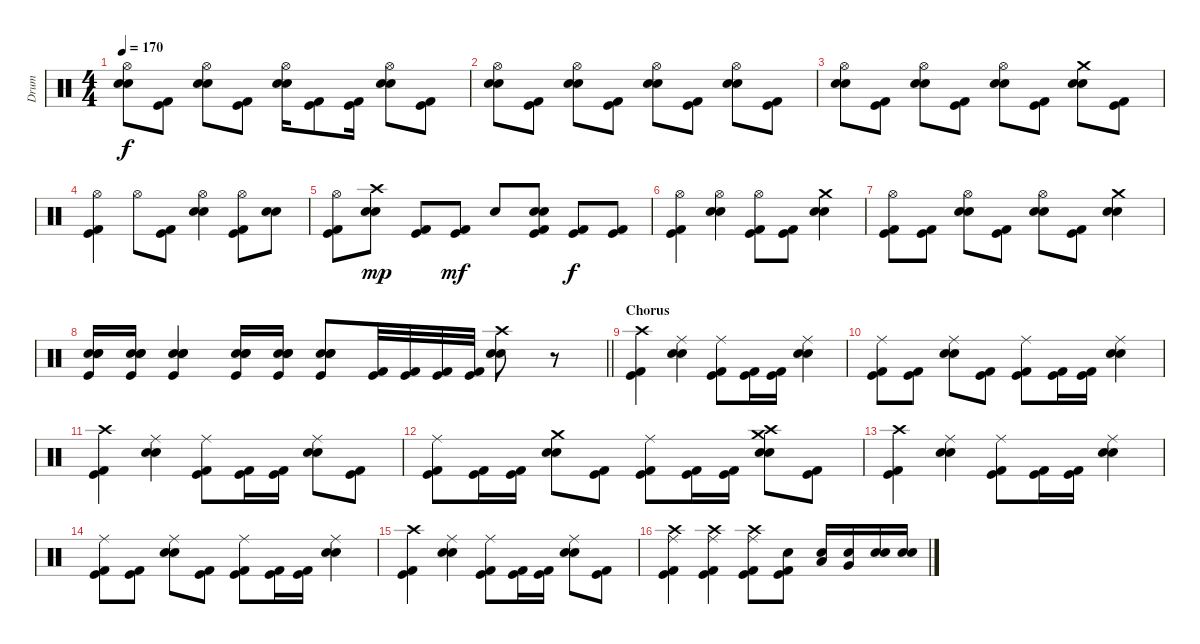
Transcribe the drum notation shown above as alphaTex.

\track ("Drum" "Drum") {instrument percussion}
\staff
\articulation defaults
\ts (4 4)
\tempo 170
\clef neutral
\ks c
("Hi-Hat (open)" "Electric Snare (hit)" "Snare (hit) 2").8{dy f} ("Kick (hit) 2" "Kick (hit)").8 ("Hi-Hat (open)" "Electric Snare (hit)" "Snare (hit) 2").8 ("Kick (hit) 2" "Kick (hit)").8 ("Hi-Hat (open)" "Electric Snare (hit)" "Snare (hit) 2").16 ("Kick (hit) 2" "Kick (hit)").8 ("Kick (hit) 2" "Kick (hit)").16 ("Hi-Hat (open)" "Electric Snare (hit)" "Snare (hit) 2").8 ("Kick (hit) 2" "Kick (hit)").8 |
("Hi-Hat (open)" "Electric Snare (hit)" "Snare (hit) 2").8 ("Kick (hit) 2" "Kick (hit)").8 ("Hi-Hat (open)" "Electric Snare (hit)" "Snare (hit) 2").8 ("Kick (hit) 2" "Kick (hit)").8 ("Hi-Hat (open)" "Electric Snare (hit)" "Snare (hit) 2").8 ("Kick (hit) 2" "Kick (hit)").8 ("Hi-Hat (open)" "Electric Snare (hit)" "Snare (hit) 2").8 ("Kick (hit) 2" "Kick (hit)").8 |
("Hi-Hat (open)" "Electric Snare (hit)" "Snare (hit) 2").8 ("Kick (hit) 2" "Kick (hit)").8 ("Hi-Hat (open)" "Electric Snare (hit)" "Snare (hit) 2").8 ("Kick (hit) 2" "Kick (hit)").8 ("Hi-Hat (open)" "Electric Snare (hit)" "Snare (hit) 2").8 ("Kick (hit) 2" "Kick (hit)").8 ("Crash medium (hit)" "Electric Snare (hit)" "Snare (hit) 2").8 ("Kick (hit) 2" "Kick (hit)").8 |
("Hi-Hat (open)" "Kick (hit) 2" "Kick (hit)").4 "Hi-Hat (open)".8 ("Kick (hit) 2" "Kick (hit)").8 ("Hi-Hat (open)" "Electric Snare (hit)" "Snare (hit) 2").4 ("Hi-Hat (open)" "Kick (hit) 2" "Kick (hit)").8 ("Electric Snare (hit)" "Snare (hit) 2").8 |
("Hi-Hat (open)" "Kick (hit) 2" "Kick (hit)").8 ("Crash high (hit)" "Electric Snare (hit)" "Snare (hit) 2").8{dy mp} ("Kick (hit) 2" "Kick (hit)").8 ("Kick (hit) 2" "Kick (hit)").8{dy mf} "Electric Snare (hit)".8 ("Electric Snare (hit)" "Snare (hit) 2" "Kick (hit) 2" "Kick (hit)").8 ("Kick (hit) 2" "Kick (hit)").8{dy f} ("Kick (hit) 2" "Kick (hit)").8 |
("Hi-Hat (open)" "Kick (hit) 2" "Kick (hit)").4 ("Hi-Hat (open)" "Electric Snare (hit)" "Snare (hit) 2").4 ("Hi-Hat (open)" "Kick (hit) 2" "Kick (hit)").8 ("Kick (hit) 2" "Kick (hit)").8 ("Crash medium (hit)" "Electric Snare (hit)" "Snare (hit) 2").4 |
("Hi-Hat (open)" "Kick (hit) 2" "Kick (hit)").8 ("Kick (hit) 2" "Kick (hit)").8 ("Hi-Hat (open)" "Electric Snare (hit)" "Snare (hit) 2").8 ("Kick (hit) 2" "Kick (hit)").8 ("Hi-Hat (open)" "Electric Snare (hit)" "Snare (hit) 2").8 ("Kick (hit) 2" "Kick (hit)").8 ("Crash medium (hit)" "Electric Snare (hit)" "Snare (hit) 2").4 |
\barLineRight lightlight
("Snare (hit) 2" "Electric Snare (hit)" "Snare (hit) 2" "Kick (hit)").16 ("Snare (hit) 2" "Electric Snare (hit)" "Snare (hit) 2" "Kick (hit)").16 ("Snare (hit) 2" "Electric Snare (hit)" "Snare (hit) 2" "Kick (hit)").4 ("Snare (hit) 2" "Electric Snare (hit)" "Snare (hit) 2" "Kick (hit)").16 ("Snare (hit) 2" "Electric Snare (hit)" "Snare (hit) 2" "Kick (hit)").16 ("Snare (hit) 2" "Electric Snare (hit)" "Snare (hit) 2" "Kick (hit)").8 ("Kick (hit) 2" "Kick (hit)").32 ("Kick (hit) 2" "Kick (hit)").32 ("Kick (hit) 2" "Kick (hit)").32 ("Kick (hit) 2" "Kick (hit)").32 ("Crash high (hit)" "Electric Snare (hit)" "Snare (hit) 2").8 r.8 |
\section ("" "Chorus")
("Crash high (hit)" "Kick (hit) 2" "Kick (hit)").4 ("Ride (middle)" "Electric Snare (hit)" "Snare (hit) 2").4 ("Ride (middle)" "Kick (hit) 2" "Kick (hit)").8 ("Kick (hit) 2" "Kick (hit)").16 ("Kick (hit) 2" "Kick (hit)").16 ("Ride (middle)" "Electric Snare (hit)" "Snare (hit) 2").4 |
("Ride (middle)" "Kick (hit) 2" "Kick (hit)").8 ("Kick (hit) 2" "Kick (hit)").8 ("Ride (middle)" "Electric Snare (hit)" "Snare (hit) 2").8 ("Kick (hit) 2" "Kick (hit)").8 ("Ride (middle)" "Kick (hit) 2" "Kick (hit)").8 ("Kick (hit) 2" "Kick (hit)").16 ("Kick (hit) 2" "Kick (hit)").16 ("Ride (middle)" "Electric Snare (hit)" "Snare (hit) 2").4 |
("Crash high (hit)" "Kick (hit) 2" "Kick (hit)").4 ("Ride (middle)" "Electric Snare (hit)" "Snare (hit) 2").4 ("Ride (middle)" "Kick (hit) 2" "Kick (hit)").8 ("Kick (hit) 2" "Kick (hit)").16 ("Kick (hit) 2" "Kick (hit)").16 ("Ride (middle)" "Electric Snare (hit)" "Snare (hit) 2").8 ("Kick (hit) 2" "Kick (hit)").8 |
("Ride (middle)" "Kick (hit) 2" "Kick (hit)").8 ("Kick (hit) 2" "Kick (hit)").16 ("Kick (hit) 2" "Kick (hit)").16 ("Crash medium (hit)" "Electric Snare (hit)" "Snare (hit) 2").8 ("Kick (hit) 2" "Kick (hit)").8 ("Ride (middle)" "Kick (hit) 2" "Kick (hit)").8 ("Kick (hit) 2" "Kick (hit)").16 ("Kick (hit) 2" "Kick (hit)").16 ("Crash high (hit)" "Crash medium (hit)" "Electric Snare (hit)" "Snare (hit) 2").8 ("Kick (hit) 2" "Kick (hit)").8 |
("Crash high (hit)" "Kick (hit) 2" "Kick (hit)").4 ("Ride (middle)" "Electric Snare (hit)" "Snare (hit) 2").4 ("Ride (middle)" "Kick (hit) 2" "Kick (hit)").8 ("Kick (hit) 2" "Kick (hit)").16 ("Kick (hit) 2" "Kick (hit)").16 ("Ride (middle)" "Electric Snare (hit)" "Snare (hit) 2").4 |
("Ride (middle)" "Kick (hit) 2" "Kick (hit)").8 ("Kick (hit) 2" "Kick (hit)").8 ("Ride (middle)" "Electric Snare (hit)" "Snare (hit) 2").8 ("Kick (hit) 2" "Kick (hit)").8 ("Ride (middle)" "Kick (hit) 2" "Kick (hit)").8 ("Kick (hit) 2" "Kick (hit)").16 ("Kick (hit) 2" "Kick (hit)").16 ("Ride (middle)" "Electric Snare (hit)" "Snare (hit) 2").4 |
("Crash high (hit)" "Kick (hit) 2" "Kick (hit)").4 ("Ride (middle)" "Electric Snare (hit)" "Snare (hit) 2").4 ("Ride (middle)" "Kick (hit) 2" "Kick (hit)").8 ("Kick (hit) 2" "Kick (hit)").16 ("Kick (hit) 2" "Kick (hit)").16 ("Ride (middle)" "Electric Snare (hit)" "Snare (hit) 2").8 ("Kick (hit) 2" "Kick (hit)").8 |
("Ride (middle)" "Crash high (hit)" "Kick (hit) 2" "Kick (hit)").4 ("Ride (middle)" "Crash high (hit)" "Kick (hit) 2" "Kick (hit)").4 ("Ride (middle)" "Crash high (hit)" "Kick (hit) 2" "Kick (hit)").8 ("Electric Snare (hit)" "Kick (hit) 2" "Kick (hit)").8 ("Electric Snare (hit)" "Low Floor Tom (hit)").16 ("Electric Snare (hit)" "Very Low Tom (hit)").16 ("Electric Snare (hit)" "Snare (hit) 2").16 ("Electric Snare (hit)" "Snare (hit) 2").16
